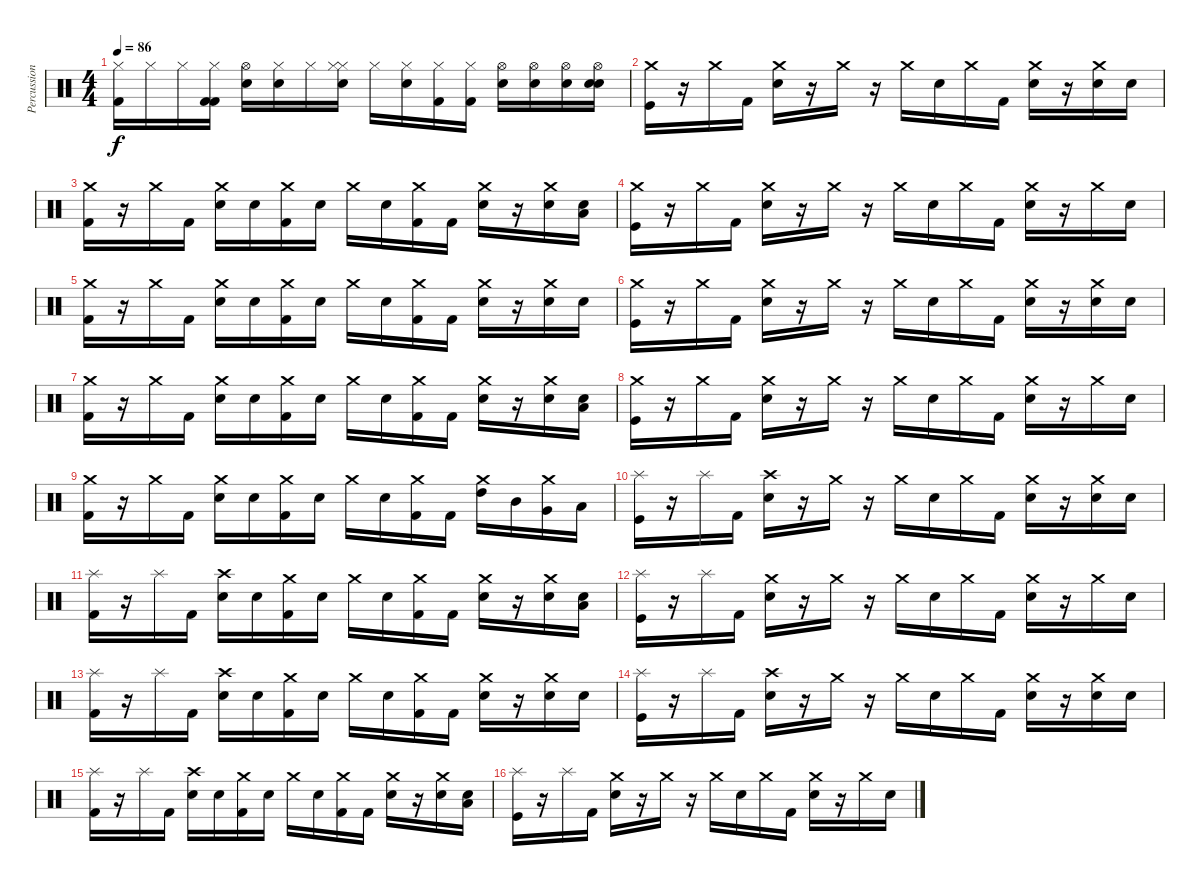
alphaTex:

\track ("Percussion" "Percussion") {instrument percussion}
\staff {score}
\articulation defaults
\ts (4 4)
\tempo 86
\clef neutral
\ks c
("Hi-Hat (closed)" "Kick (hit) 2").16{dy f} "Hi-Hat (closed)".16 "Hi-Hat (closed)".16 ("Hi-Hat (closed)" "Kick (hit) 2" "Kick (hit) 2").16 ("Hi-Hat (open)" "Electric Snare (hit)").16 ("Hi-Hat (closed)" "Electric Snare (hit)").16 "Hi-Hat (closed)".16 ("Hi-Hat (closed)" "Electric Snare (hit)" "Hi-Hat (closed)").16 "Hi-Hat (closed)".16 ("Hi-Hat (closed)" "Electric Snare (hit)").16 ("Hi-Hat (closed)" "Kick (hit) 2").16 ("Hi-Hat (closed)" "Kick (hit) 2").16 ("Hi-Hat (open)" "Electric Snare (hit)").16 ("Hi-Hat (open)" "Electric Snare (hit)").16 ("Hi-Hat (open)" "Electric Snare (hit)").16 ("Hi-Hat (open)" "Electric Snare (hit)" "Electric Snare (hit)").16 |
("Crash medium (hit)" "Kick (hit)").16 r.16 "Crash medium (hit)".16 "Kick (hit) 2".16 ("Crash medium (hit)" "Electric Snare (hit)").16 r.16 "Crash medium (hit)".16 r.16 "Crash medium (hit)".16 "Electric Snare (hit)".16 "Crash medium (hit)".16 "Kick (hit) 2".16 ("Crash medium (hit)" "Electric Snare (hit)").16 r.16 ("Crash medium (hit)" "Electric Snare (hit)").16 "Electric Snare (hit)".16 |
("Crash medium (hit)" "Kick (hit) 2").16 r.16 "Crash medium (hit)".16 "Kick (hit) 2".16 ("Crash medium (hit)" "Electric Snare (hit)").16 "Electric Snare (hit)".16 ("Crash medium (hit)" "Kick (hit) 2").16 "Electric Snare (hit)".16 "Crash medium (hit)".16 "Electric Snare (hit)".16 ("Crash medium (hit)" "Kick (hit) 2").16 "Kick (hit) 2".16 ("Crash medium (hit)" "Electric Snare (hit)").16 r.16 ("Crash medium (hit)" "Electric Snare (hit)").16 ("Electric Snare (hit)" "Low Floor Tom (hit)").16 |
("Crash medium (hit)" "Kick (hit)").16 r.16 "Crash medium (hit)".16 "Kick (hit) 2".16 ("Crash medium (hit)" "Electric Snare (hit)").16 r.16 "Crash medium (hit)".16 r.16 "Crash medium (hit)".16 "Electric Snare (hit)".16 "Crash medium (hit)".16 "Kick (hit) 2".16 ("Crash medium (hit)" "Electric Snare (hit)").16 r.16 "Crash medium (hit)".16 "Electric Snare (hit)".16 |
("Crash medium (hit)" "Kick (hit) 2").16 r.16 "Crash medium (hit)".16 "Kick (hit) 2".16 ("Crash medium (hit)" "Electric Snare (hit)").16 "Electric Snare (hit)".16 ("Crash medium (hit)" "Kick (hit) 2").16 "Electric Snare (hit)".16 "Crash medium (hit)".16 "Electric Snare (hit)".16 ("Crash medium (hit)" "Kick (hit) 2").16 "Kick (hit) 2".16 ("Crash medium (hit)" "Electric Snare (hit)").16 r.16 ("Crash medium (hit)" "Electric Snare (hit)").16 "Electric Snare (hit)".16 |
("Crash medium (hit)" "Kick (hit)").16 r.16 "Crash medium (hit)".16 "Kick (hit) 2".16 ("Crash medium (hit)" "Electric Snare (hit)").16 r.16 "Crash medium (hit)".16 r.16 "Crash medium (hit)".16 "Electric Snare (hit)".16 "Crash medium (hit)".16 "Kick (hit) 2".16 ("Crash medium (hit)" "Electric Snare (hit)").16 r.16 ("Crash medium (hit)" "Electric Snare (hit)").16 "Electric Snare (hit)".16 |
("Crash medium (hit)" "Kick (hit) 2").16 r.16 "Crash medium (hit)".16 "Kick (hit) 2".16 ("Crash medium (hit)" "Electric Snare (hit)").16 "Electric Snare (hit)".16 ("Crash medium (hit)" "Kick (hit) 2").16 "Electric Snare (hit)".16 "Crash medium (hit)".16 "Electric Snare (hit)".16 ("Crash medium (hit)" "Kick (hit) 2").16 "Kick (hit) 2".16 ("Crash medium (hit)" "Electric Snare (hit)").16 r.16 ("Crash medium (hit)" "Electric Snare (hit)").16 ("Electric Snare (hit)" "Low Floor Tom (hit)").16 |
("Crash medium (hit)" "Kick (hit)").16 r.16 "Crash medium (hit)".16 "Kick (hit) 2".16 ("Crash medium (hit)" "Electric Snare (hit)").16 r.16 "Crash medium (hit)".16 r.16 "Crash medium (hit)".16 "Electric Snare (hit)".16 "Crash medium (hit)".16 "Kick (hit) 2".16 ("Crash medium (hit)" "Electric Snare (hit)").16 r.16 "Crash medium (hit)".16 "Electric Snare (hit)".16 |
("Crash medium (hit)" "Kick (hit) 2").16 r.16 "Crash medium (hit)".16 "Kick (hit) 2".16 ("Crash medium (hit)" "Electric Snare (hit)").16 "Electric Snare (hit)".16 ("Crash medium (hit)" "Kick (hit) 2").16 "Electric Snare (hit)".16 "Crash medium (hit)".16 "Electric Snare (hit)".16 ("Crash medium (hit)" "Kick (hit) 2").16 "Kick (hit) 2".16 ("Crash medium (hit)" "High Tom (hit)").16 "Mid Tom (hit)".16 ("Crash medium (hit)" "Very Low Tom (hit)").16 "Low Floor Tom (hit)".16 |
("Splash (hit)" "Kick (hit)").16 r.16 "Splash (hit)".16 "Kick (hit) 2".16 ("Crash high (hit)" "Electric Snare (hit)").16 r.16 "Crash medium (hit)".16 r.16 "Crash medium (hit)".16 "Electric Snare (hit)".16 "Crash medium (hit)".16 "Kick (hit) 2".16 ("Crash medium (hit)" "Electric Snare (hit)").16 r.16 ("Crash medium (hit)" "Electric Snare (hit)").16 "Electric Snare (hit)".16 |
("Splash (hit)" "Kick (hit) 2").16 r.16 "Splash (hit)".16 "Kick (hit) 2".16 ("Crash high (hit)" "Electric Snare (hit)").16 "Electric Snare (hit)".16 ("Crash medium (hit)" "Kick (hit) 2").16 "Electric Snare (hit)".16 "Crash medium (hit)".16 "Electric Snare (hit)".16 ("Crash medium (hit)" "Kick (hit) 2").16 "Kick (hit) 2".16 ("Crash medium (hit)" "Electric Snare (hit)").16 r.16 ("Crash medium (hit)" "Electric Snare (hit)").16 ("Electric Snare (hit)" "Low Floor Tom (hit)").16 |
("Splash (hit)" "Kick (hit)").16 r.16 "Splash (hit)".16 "Kick (hit) 2".16 ("Crash medium (hit)" "Electric Snare (hit)").16 r.16 "Crash medium (hit)".16 r.16 "Crash medium (hit)".16 "Electric Snare (hit)".16 "Crash medium (hit)".16 "Kick (hit) 2".16 ("Crash medium (hit)" "Electric Snare (hit)").16 r.16 "Crash medium (hit)".16 "Electric Snare (hit)".16 |
("Splash (hit)" "Kick (hit) 2").16 r.16 "Splash (hit)".16 "Kick (hit) 2".16 ("Crash high (hit)" "Electric Snare (hit)").16 "Electric Snare (hit)".16 ("Crash medium (hit)" "Kick (hit) 2").16 "Electric Snare (hit)".16 "Crash medium (hit)".16 "Electric Snare (hit)".16 ("Crash medium (hit)" "Kick (hit) 2").16 "Kick (hit) 2".16 ("Crash medium (hit)" "Electric Snare (hit)").16 r.16 ("Crash medium (hit)" "Electric Snare (hit)").16 "Electric Snare (hit)".16 |
("Splash (hit)" "Kick (hit)").16 r.16 "Splash (hit)".16 "Kick (hit) 2".16 ("Crash high (hit)" "Electric Snare (hit)").16 r.16 "Crash medium (hit)".16 r.16 "Crash medium (hit)".16 "Electric Snare (hit)".16 "Crash medium (hit)".16 "Kick (hit) 2".16 ("Crash medium (hit)" "Electric Snare (hit)").16 r.16 ("Crash medium (hit)" "Electric Snare (hit)").16 "Electric Snare (hit)".16 |
("Splash (hit)" "Kick (hit) 2").16 r.16 "Splash (hit)".16 "Kick (hit) 2".16 ("Crash high (hit)" "Electric Snare (hit)").16 "Electric Snare (hit)".16 ("Crash medium (hit)" "Kick (hit) 2").16 "Electric Snare (hit)".16 "Crash medium (hit)".16 "Electric Snare (hit)".16 ("Crash medium (hit)" "Kick (hit) 2").16 "Kick (hit) 2".16 ("Crash medium (hit)" "Electric Snare (hit)").16 r.16 ("Crash medium (hit)" "Electric Snare (hit)").16 ("Electric Snare (hit)" "Low Floor Tom (hit)").16 |
("Splash (hit)" "Kick (hit)").16 r.16 "Splash (hit)".16 "Kick (hit) 2".16 ("Crash medium (hit)" "Electric Snare (hit)").16 r.16 "Crash medium (hit)".16 r.16 "Crash medium (hit)".16 "Electric Snare (hit)".16 "Crash medium (hit)".16 "Kick (hit) 2".16 ("Crash medium (hit)" "Electric Snare (hit)").16 r.16 "Crash medium (hit)".16 "Electric Snare (hit)".16
